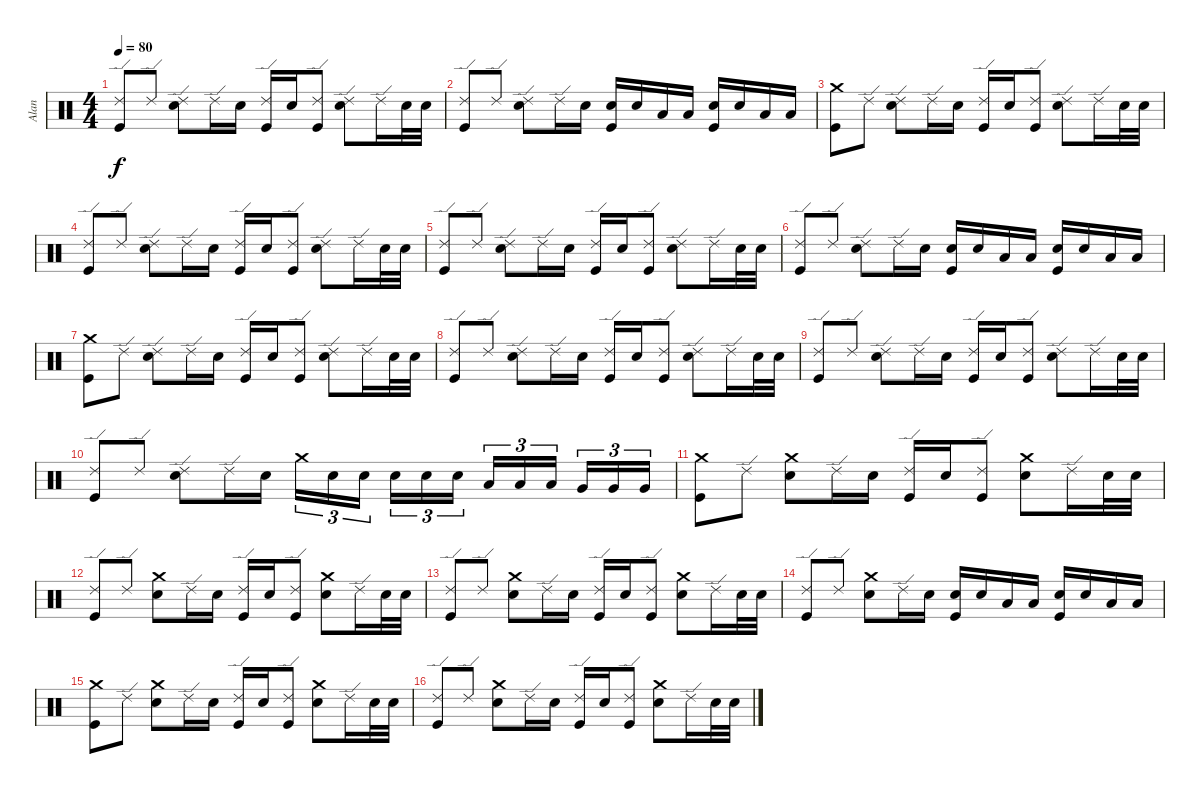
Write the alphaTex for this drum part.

\track ("Alan" "Alan") {instrument percussion}
\staff {score}
\articulation defaults
\ts (4 4)
\tempo 80
\clef neutral
\ks c
("Ride (edge) 2" "Kick (hit)").8{dy f} "Ride (edge) 2".8 ("Ride (edge) 2" "Snare (hit) 2").8 "Ride (edge) 2".16 "Snare (hit) 2".16 ("Ride (edge) 2" "Kick (hit)").16 "Snare (hit) 2".16 ("Ride (edge) 2" "Kick (hit)").8 ("Ride (edge) 2" "Snare (hit) 2").8 "Ride (edge) 2".16 "Snare (hit) 2".32 "Snare (hit) 2".32 |
("Ride (edge) 2" "Kick (hit)").8 "Ride (edge) 2".8 ("Ride (edge) 2" "Snare (hit) 2").8 "Ride (edge) 2".16 "Snare (hit) 2".16 ("Kick (hit)" "Snare (hit) 2").16 "Snare (hit) 2".16 "Low Floor Tom (hit)".16 "Low Tom (hit)".16 ("Kick (hit)" "Snare (hit) 2").16 "Snare (hit) 2".16 "Low Floor Tom (hit)".16 "Low Tom (hit)".16 |
("Crash medium (hit)" "Kick (hit)").8 "Ride (edge) 2".8 ("Ride (edge) 2" "Snare (hit) 2").8 "Ride (edge) 2".16 "Snare (hit) 2".16 ("Ride (edge) 2" "Kick (hit)").16 "Snare (hit) 2".16 ("Ride (edge) 2" "Kick (hit)").8 ("Ride (edge) 2" "Snare (hit) 2").8 "Ride (edge) 2".16 "Snare (hit) 2".32 "Snare (hit) 2".32 |
("Ride (edge) 2" "Kick (hit)").8 "Ride (edge) 2".8 ("Ride (edge) 2" "Snare (hit) 2").8 "Ride (edge) 2".16 "Snare (hit) 2".16 ("Ride (edge) 2" "Kick (hit)").16 "Snare (hit) 2".16 ("Ride (edge) 2" "Kick (hit)").8 ("Ride (edge) 2" "Snare (hit) 2").8 "Ride (edge) 2".16 "Snare (hit) 2".32 "Snare (hit) 2".32 |
("Ride (edge) 2" "Kick (hit)").8 "Ride (edge) 2".8 ("Ride (edge) 2" "Snare (hit) 2").8 "Ride (edge) 2".16 "Snare (hit) 2".16 ("Ride (edge) 2" "Kick (hit)").16 "Snare (hit) 2".16 ("Ride (edge) 2" "Kick (hit)").8 ("Ride (edge) 2" "Snare (hit) 2").8 "Ride (edge) 2".16 "Snare (hit) 2".32 "Snare (hit) 2".32 |
("Ride (edge) 2" "Kick (hit)").8 "Ride (edge) 2".8 ("Ride (edge) 2" "Snare (hit) 2").8 "Ride (edge) 2".16 "Snare (hit) 2".16 ("Kick (hit)" "Snare (hit) 2").16 "Snare (hit) 2".16 "Low Floor Tom (hit)".16 "Low Tom (hit)".16 ("Kick (hit)" "Snare (hit) 2").16 "Snare (hit) 2".16 "Low Floor Tom (hit)".16 "Low Tom (hit)".16 |
("Crash medium (hit)" "Kick (hit)").8 "Ride (edge) 2".8 ("Ride (edge) 2" "Snare (hit) 2").8 "Ride (edge) 2".16 "Snare (hit) 2".16 ("Ride (edge) 2" "Kick (hit)").16 "Snare (hit) 2".16 ("Ride (edge) 2" "Kick (hit)").8 ("Ride (edge) 2" "Snare (hit) 2").8 "Ride (edge) 2".16 "Snare (hit) 2".32 "Snare (hit) 2".32 |
("Ride (edge) 2" "Kick (hit)").8 "Ride (edge) 2".8 ("Ride (edge) 2" "Snare (hit) 2").8 "Ride (edge) 2".16 "Snare (hit) 2".16 ("Ride (edge) 2" "Kick (hit)").16 "Snare (hit) 2".16 ("Ride (edge) 2" "Kick (hit)").8 ("Ride (edge) 2" "Snare (hit) 2").8 "Ride (edge) 2".16 "Snare (hit) 2".32 "Snare (hit) 2".32 |
("Ride (edge) 2" "Kick (hit)").8 "Ride (edge) 2".8 ("Ride (edge) 2" "Snare (hit) 2").8 "Ride (edge) 2".16 "Snare (hit) 2".16 ("Ride (edge) 2" "Kick (hit)").16 "Snare (hit) 2".16 ("Ride (edge) 2" "Kick (hit)").8 ("Ride (edge) 2" "Snare (hit) 2").8 "Ride (edge) 2".16 "Snare (hit) 2".32 "Snare (hit) 2".32 |
("Ride (edge) 2" "Kick (hit)").8 "Ride (edge) 2".8 ("Ride (edge) 2" "Snare (hit) 2").8 "Ride (edge) 2".16 "Snare (hit) 2".16 "Crash medium (hit)".16{tu (3 2)} "Snare (hit) 2".16{tu (3 2)} "Snare (hit) 2".16{tu (3 2) beam splitsecondary} "Snare (hit) 2".16{tu (3 2)} "Snare (hit) 2".16{tu (3 2)} "Snare (hit) 2".16{tu (3 2)} "Low Tom (hit)".16{tu (3 2)} "Low Tom (hit)".16{tu (3 2)} "Low Tom (hit)".16{tu (3 2) beam splitsecondary} "Very Low Tom (hit)".16{tu (3 2)} "Very Low Tom (hit)".16{tu (3 2)} "Very Low Tom (hit)".16{tu (3 2)} |
("Crash medium (hit)" "Kick (hit)").8 "Ride (edge) 2".8 ("Crash medium (hit)" "Snare (hit) 2").8 "Ride (edge) 2".16 "Snare (hit) 2".16 ("Ride (edge) 2" "Kick (hit)").16 "Snare (hit) 2".16 ("Ride (edge) 2" "Kick (hit)").8 ("Crash medium (hit)" "Snare (hit) 2").8 "Ride (edge) 2".16 "Snare (hit) 2".32 "Snare (hit) 2".32 |
("Ride (edge) 2" "Kick (hit)").8 "Ride (edge) 2".8 ("Crash medium (hit)" "Snare (hit) 2").8 "Ride (edge) 2".16 "Snare (hit) 2".16 ("Ride (edge) 2" "Kick (hit)").16 "Snare (hit) 2".16 ("Ride (edge) 2" "Kick (hit)").8 ("Crash medium (hit)" "Snare (hit) 2").8 "Ride (edge) 2".16 "Snare (hit) 2".32 "Snare (hit) 2".32 |
("Ride (edge) 2" "Kick (hit)").8 "Ride (edge) 2".8 ("Crash medium (hit)" "Snare (hit) 2").8 "Ride (edge) 2".16 "Snare (hit) 2".16 ("Ride (edge) 2" "Kick (hit)").16 "Snare (hit) 2".16 ("Ride (edge) 2" "Kick (hit)").8 ("Crash medium (hit)" "Snare (hit) 2").8 "Ride (edge) 2".16 "Snare (hit) 2".32 "Snare (hit) 2".32 |
("Ride (edge) 2" "Kick (hit)").8 "Ride (edge) 2".8 ("Crash medium (hit)" "Snare (hit) 2").8 "Ride (edge) 2".16 "Snare (hit) 2".16 ("Kick (hit)" "Snare (hit) 2").16 "Snare (hit) 2".16 "Low Floor Tom (hit)".16 "Low Tom (hit)".16 ("Kick (hit)" "Snare (hit) 2").16 "Snare (hit) 2".16 "Low Floor Tom (hit)".16 "Low Tom (hit)".16 |
("Crash medium (hit)" "Kick (hit)").8 "Ride (edge) 2".8 ("Crash medium (hit)" "Snare (hit) 2").8 "Ride (edge) 2".16 "Snare (hit) 2".16 ("Ride (edge) 2" "Kick (hit)").16 "Snare (hit) 2".16 ("Ride (edge) 2" "Kick (hit)").8 ("Crash medium (hit)" "Snare (hit) 2").8 "Ride (edge) 2".16 "Snare (hit) 2".32 "Snare (hit) 2".32 |
("Ride (edge) 2" "Kick (hit)").8 "Ride (edge) 2".8 ("Crash medium (hit)" "Snare (hit) 2").8 "Ride (edge) 2".16 "Snare (hit) 2".16 ("Ride (edge) 2" "Kick (hit)").16 "Snare (hit) 2".16 ("Ride (edge) 2" "Kick (hit)").8 ("Crash medium (hit)" "Snare (hit) 2").8 "Ride (edge) 2".16 "Snare (hit) 2".32 "Snare (hit) 2".32
